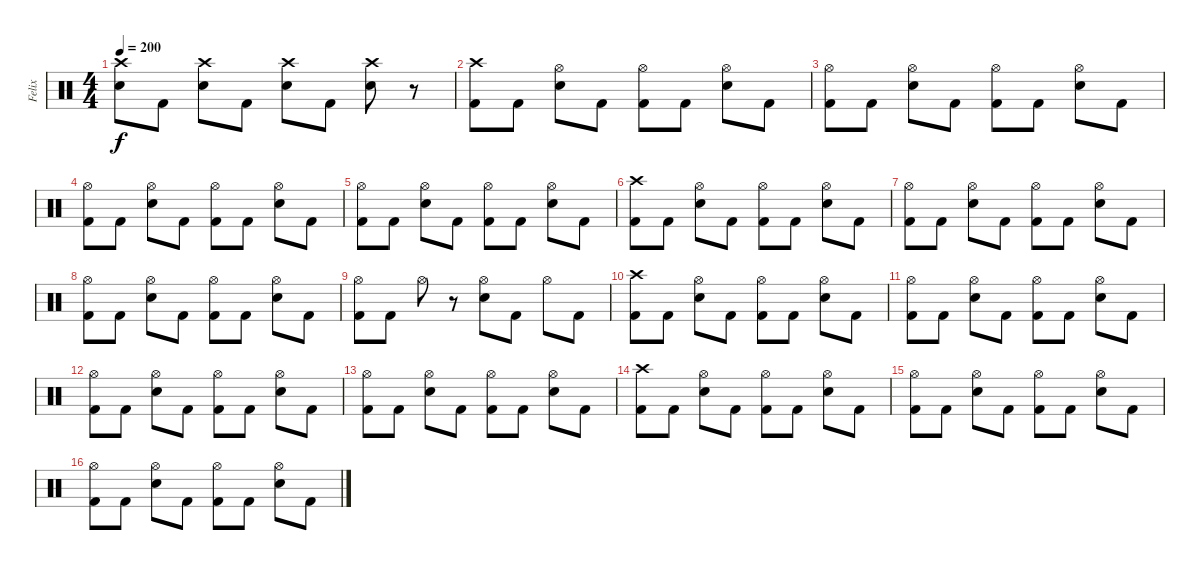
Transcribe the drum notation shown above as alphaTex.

\track ("Felix" "Felix") {instrument percussion}
\staff {score}
\articulation defaults
\ts (4 4)
\tempo 200
\clef neutral
\ks c
("Crash high (hit)" "Electric Snare (hit)").8{dy f} "Kick (hit) 2".8 ("Crash high (hit)" "Electric Snare (hit)").8 "Kick (hit) 2".8 ("Crash high (hit)" "Electric Snare (hit)").8 "Kick (hit) 2".8 ("Crash high (hit)" "Electric Snare (hit)").8 r.8 |
("Crash high (hit)" "Kick (hit) 2").8 "Kick (hit) 2".8 ("Hi-Hat (open)" "Electric Snare (hit)").8 "Kick (hit) 2".8 ("Hi-Hat (open)" "Kick (hit) 2").8 "Kick (hit) 2".8 ("Hi-Hat (open)" "Electric Snare (hit)").8 "Kick (hit) 2".8 |
("Hi-Hat (open)" "Kick (hit) 2").8 "Kick (hit) 2".8 ("Hi-Hat (open)" "Electric Snare (hit)").8 "Kick (hit) 2".8 ("Hi-Hat (open)" "Kick (hit) 2").8 "Kick (hit) 2".8 ("Hi-Hat (open)" "Electric Snare (hit)").8 "Kick (hit) 2".8 |
("Hi-Hat (open)" "Kick (hit) 2").8 "Kick (hit) 2".8 ("Hi-Hat (open)" "Electric Snare (hit)").8 "Kick (hit) 2".8 ("Hi-Hat (open)" "Kick (hit) 2").8 "Kick (hit) 2".8 ("Hi-Hat (open)" "Electric Snare (hit)").8 "Kick (hit) 2".8 |
("Hi-Hat (open)" "Kick (hit) 2").8 "Kick (hit) 2".8 ("Hi-Hat (open)" "Electric Snare (hit)").8 "Kick (hit) 2".8 ("Hi-Hat (open)" "Kick (hit) 2").8 "Kick (hit) 2".8 ("Hi-Hat (open)" "Electric Snare (hit)").8 "Kick (hit) 2".8 |
("Crash high (hit)" "Kick (hit) 2").8 "Kick (hit) 2".8 ("Hi-Hat (open)" "Electric Snare (hit)").8 "Kick (hit) 2".8 ("Hi-Hat (open)" "Kick (hit) 2").8 "Kick (hit) 2".8 ("Hi-Hat (open)" "Electric Snare (hit)").8 "Kick (hit) 2".8 |
("Hi-Hat (open)" "Kick (hit) 2").8 "Kick (hit) 2".8 ("Hi-Hat (open)" "Electric Snare (hit)").8 "Kick (hit) 2".8 ("Hi-Hat (open)" "Kick (hit) 2").8 "Kick (hit) 2".8 ("Hi-Hat (open)" "Electric Snare (hit)").8 "Kick (hit) 2".8 |
("Hi-Hat (open)" "Kick (hit) 2").8 "Kick (hit) 2".8 ("Hi-Hat (open)" "Electric Snare (hit)").8 "Kick (hit) 2".8 ("Hi-Hat (open)" "Kick (hit) 2").8 "Kick (hit) 2".8 ("Hi-Hat (open)" "Electric Snare (hit)").8 "Kick (hit) 2".8 |
("Hi-Hat (open)" "Kick (hit) 2").8 "Kick (hit) 2".8 "Hi-Hat (open)".8 r.8 ("Hi-Hat (open)" "Electric Snare (hit)").8 "Kick (hit) 2".8 "Hi-Hat (open)".8 "Kick (hit) 2".8 |
("Crash high (hit)" "Kick (hit) 2").8 "Kick (hit) 2".8 ("Hi-Hat (open)" "Electric Snare (hit)").8 "Kick (hit) 2".8 ("Hi-Hat (open)" "Kick (hit) 2").8 "Kick (hit) 2".8 ("Hi-Hat (open)" "Electric Snare (hit)").8 "Kick (hit) 2".8 |
("Hi-Hat (open)" "Kick (hit) 2").8 "Kick (hit) 2".8 ("Hi-Hat (open)" "Electric Snare (hit)").8 "Kick (hit) 2".8 ("Hi-Hat (open)" "Kick (hit) 2").8 "Kick (hit) 2".8 ("Hi-Hat (open)" "Electric Snare (hit)").8 "Kick (hit) 2".8 |
("Hi-Hat (open)" "Kick (hit) 2").8 "Kick (hit) 2".8 ("Hi-Hat (open)" "Electric Snare (hit)").8 "Kick (hit) 2".8 ("Hi-Hat (open)" "Kick (hit) 2").8 "Kick (hit) 2".8 ("Hi-Hat (open)" "Electric Snare (hit)").8 "Kick (hit) 2".8 |
("Hi-Hat (open)" "Kick (hit) 2").8 "Kick (hit) 2".8 ("Hi-Hat (open)" "Electric Snare (hit)").8 "Kick (hit) 2".8 ("Hi-Hat (open)" "Kick (hit) 2").8 "Kick (hit) 2".8 ("Hi-Hat (open)" "Electric Snare (hit)").8 "Kick (hit) 2".8 |
("Crash high (hit)" "Kick (hit) 2").8 "Kick (hit) 2".8 ("Hi-Hat (open)" "Electric Snare (hit)").8 "Kick (hit) 2".8 ("Hi-Hat (open)" "Kick (hit) 2").8 "Kick (hit) 2".8 ("Hi-Hat (open)" "Electric Snare (hit)").8 "Kick (hit) 2".8 |
("Hi-Hat (open)" "Kick (hit) 2").8 "Kick (hit) 2".8 ("Hi-Hat (open)" "Electric Snare (hit)").8 "Kick (hit) 2".8 ("Hi-Hat (open)" "Kick (hit) 2").8 "Kick (hit) 2".8 ("Hi-Hat (open)" "Electric Snare (hit)").8 "Kick (hit) 2".8 |
("Hi-Hat (open)" "Kick (hit) 2").8 "Kick (hit) 2".8 ("Hi-Hat (open)" "Electric Snare (hit)").8 "Kick (hit) 2".8 ("Hi-Hat (open)" "Kick (hit) 2").8 "Kick (hit) 2".8 ("Hi-Hat (open)" "Electric Snare (hit)").8 "Kick (hit) 2".8
